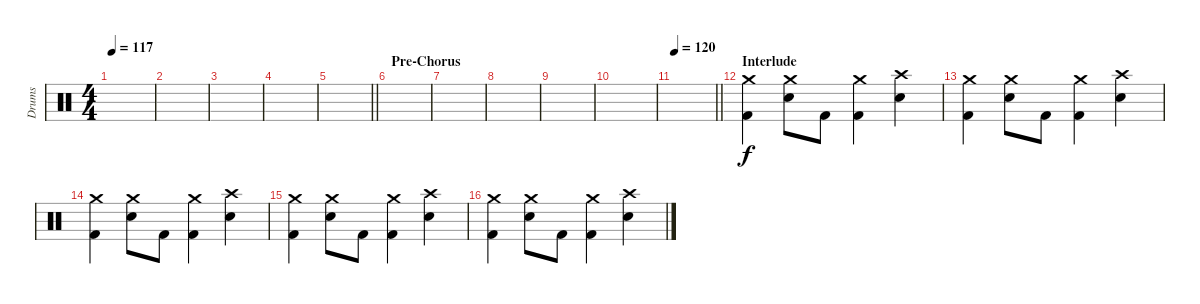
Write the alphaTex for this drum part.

\track ("Drums" "Drums") {instrument percussion}
\staff {score}
\articulation defaults
\ts (4 4)
\tempo 117
\clef neutral
\ks c
|
|
|
|
\barLineRight lightlight
|
\section ("" "Pre-Chorus")
|
|
|
|
|
\tempo 120
\barLineRight lightlight
|
\section ("" "Interlude")
("Crash medium (hit)" "Kick (hit) 2").4 ("Crash medium (hit)" "Electric Snare (hit)").8 "Kick (hit) 2".8 ("Crash medium (hit)" "Kick (hit) 2").4 ("Crash high (hit)" "Electric Snare (hit)").4 |
("Crash medium (hit)" "Kick (hit) 2").4 ("Crash medium (hit)" "Electric Snare (hit)").8 "Kick (hit) 2".8 ("Crash medium (hit)" "Kick (hit) 2").4 ("Crash high (hit)" "Electric Snare (hit)").4 |
("Crash medium (hit)" "Kick (hit) 2").4 ("Crash medium (hit)" "Electric Snare (hit)").8 "Kick (hit) 2".8 ("Crash medium (hit)" "Kick (hit) 2").4 ("Crash high (hit)" "Electric Snare (hit)").4 |
("Crash medium (hit)" "Kick (hit) 2").4 ("Crash medium (hit)" "Electric Snare (hit)").8 "Kick (hit) 2".8 ("Crash medium (hit)" "Kick (hit) 2").4 ("Crash high (hit)" "Electric Snare (hit)").4 |
("Crash medium (hit)" "Kick (hit) 2").4 ("Crash medium (hit)" "Electric Snare (hit)").8 "Kick (hit) 2".8 ("Crash medium (hit)" "Kick (hit) 2").4 ("Crash high (hit)" "Electric Snare (hit)").4
